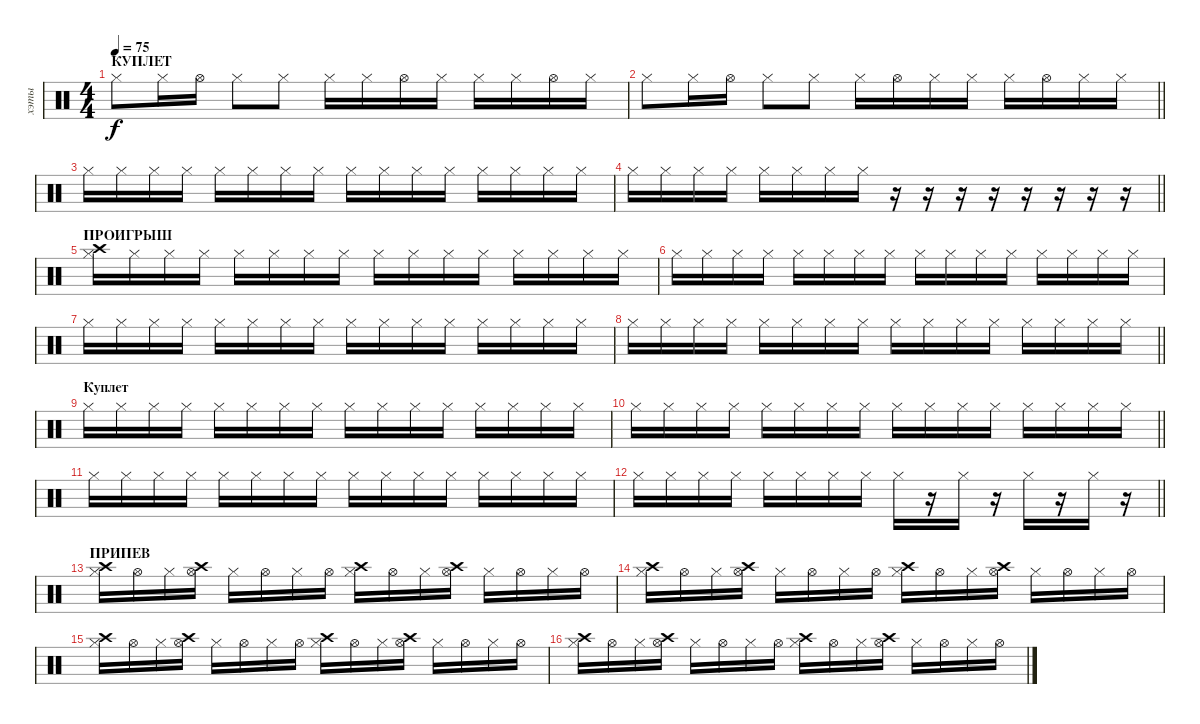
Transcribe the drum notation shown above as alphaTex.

\track ("хэты" "хэты") {instrument percussion}
\staff {score}
\articulation defaults
\ts (4 4)
\section ("" "КУПЛЕТ")
\tempo 75
\clef neutral
\ks c "Hi-Hat (closed)".8{dy f} "Hi-Hat (closed)".16 "Hi-Hat (open)".16 "Hi-Hat (closed)".8 "Hi-Hat (closed)".8 "Hi-Hat (closed)".16 "Hi-Hat (closed)".16 "Hi-Hat (open)".16 "Hi-Hat (closed)".16 "Hi-Hat (closed)".16 "Hi-Hat (closed)".16 "Hi-Hat (open)".16 "Hi-Hat (closed)".16
|
\barLineRight lightlight "Hi-Hat (closed)".8 "Hi-Hat (closed)".16 "Hi-Hat (open)".16 "Hi-Hat (closed)".8 "Hi-Hat (closed)".8 "Hi-Hat (closed)".16 "Hi-Hat (open)".16 "Hi-Hat (closed)".16 "Hi-Hat (closed)".16 "Hi-Hat (closed)".16 "Hi-Hat (open)".16 "Hi-Hat (closed)".16 "Hi-Hat (closed)".16
|
"Hi-Hat (closed)".16 "Hi-Hat (closed)".16 "Hi-Hat (closed)".16 "Hi-Hat (closed)".16 "Hi-Hat (closed)".16 "Hi-Hat (closed)".16 "Hi-Hat (closed)".16 "Hi-Hat (closed)".16 "Hi-Hat (closed)".16 "Hi-Hat (closed)".16 "Hi-Hat (closed)".16 "Hi-Hat (closed)".16 "Hi-Hat (closed)".16 "Hi-Hat (closed)".16 "Hi-Hat (closed)".16 "Hi-Hat (closed)".16 |
\barLineRight lightlight "Hi-Hat (closed)".16 "Hi-Hat (closed)".16 "Hi-Hat (closed)".16 "Hi-Hat (closed)".16 "Hi-Hat (closed)".16 "Hi-Hat (closed)".16 "Hi-Hat (closed)".16 "Hi-Hat (closed)".16
r.16 r.16 r.16 r.16 r.16 r.16 r.16 r.16 |
\section ("" "ПРОИГРЫШ")
("Crash high (hit)" "Hi-Hat (closed)").16 "Hi-Hat (closed)".16 "Hi-Hat (closed)".16 "Hi-Hat (closed)".16 "Hi-Hat (closed)".16 "Hi-Hat (closed)".16 "Hi-Hat (closed)".16 "Hi-Hat (closed)".16 "Hi-Hat (closed)".16 "Hi-Hat (closed)".16 "Hi-Hat (closed)".16 "Hi-Hat (closed)".16 "Hi-Hat (closed)".16 "Hi-Hat (closed)".16 "Hi-Hat (closed)".16 "Hi-Hat (closed)".16 |
"Hi-Hat (closed)".16 "Hi-Hat (closed)".16 "Hi-Hat (closed)".16 "Hi-Hat (closed)".16 "Hi-Hat (closed)".16 "Hi-Hat (closed)".16 "Hi-Hat (closed)".16 "Hi-Hat (closed)".16 "Hi-Hat (closed)".16 "Hi-Hat (closed)".16 "Hi-Hat (closed)".16 "Hi-Hat (closed)".16 "Hi-Hat (closed)".16 "Hi-Hat (closed)".16 "Hi-Hat (closed)".16 "Hi-Hat (closed)".16 |
"Hi-Hat (closed)".16 "Hi-Hat (closed)".16 "Hi-Hat (closed)".16 "Hi-Hat (closed)".16 "Hi-Hat (closed)".16 "Hi-Hat (closed)".16 "Hi-Hat (closed)".16 "Hi-Hat (closed)".16 "Hi-Hat (closed)".16 "Hi-Hat (closed)".16 "Hi-Hat (closed)".16 "Hi-Hat (closed)".16 "Hi-Hat (closed)".16 "Hi-Hat (closed)".16 "Hi-Hat (closed)".16 "Hi-Hat (closed)".16 |
\barLineRight lightlight "Hi-Hat (closed)".16 "Hi-Hat (closed)".16 "Hi-Hat (closed)".16 "Hi-Hat (closed)".16 "Hi-Hat (closed)".16 "Hi-Hat (closed)".16 "Hi-Hat (closed)".16 "Hi-Hat (closed)".16 "Hi-Hat (closed)".16 "Hi-Hat (closed)".16 "Hi-Hat (closed)".16 "Hi-Hat (closed)".16 "Hi-Hat (closed)".16 "Hi-Hat (closed)".16 "Hi-Hat (closed)".16 "Hi-Hat (closed)".16
|
\section ("" "Куплет")
"Hi-Hat (closed)".16 "Hi-Hat (closed)".16 "Hi-Hat (closed)".16 "Hi-Hat (closed)".16 "Hi-Hat (closed)".16 "Hi-Hat (closed)".16 "Hi-Hat (closed)".16 "Hi-Hat (closed)".16 "Hi-Hat (closed)".16 "Hi-Hat (closed)".16 "Hi-Hat (closed)".16 "Hi-Hat (closed)".16 "Hi-Hat (closed)".16 "Hi-Hat (closed)".16 "Hi-Hat (closed)".16 "Hi-Hat (closed)".16 |
\barLineRight lightlight "Hi-Hat (closed)".16 "Hi-Hat (closed)".16 "Hi-Hat (closed)".16 "Hi-Hat (closed)".16 "Hi-Hat (closed)".16 "Hi-Hat (closed)".16 "Hi-Hat (closed)".16 "Hi-Hat (closed)".16 "Hi-Hat (closed)".16 "Hi-Hat (closed)".16 "Hi-Hat (closed)".16 "Hi-Hat (closed)".16 "Hi-Hat (closed)".16 "Hi-Hat (closed)".16 "Hi-Hat (closed)".16 "Hi-Hat (closed)".16
|
"Hi-Hat (closed)".16 "Hi-Hat (closed)".16 "Hi-Hat (closed)".16 "Hi-Hat (closed)".16 "Hi-Hat (closed)".16 "Hi-Hat (closed)".16 "Hi-Hat (closed)".16 "Hi-Hat (closed)".16 "Hi-Hat (closed)".16 "Hi-Hat (closed)".16 "Hi-Hat (closed)".16 "Hi-Hat (closed)".16 "Hi-Hat (closed)".16 "Hi-Hat (closed)".16 "Hi-Hat (closed)".16 "Hi-Hat (closed)".16 |
\barLineRight lightlight "Hi-Hat (closed)".16 "Hi-Hat (closed)".16 "Hi-Hat (closed)".16 "Hi-Hat (closed)".16 "Hi-Hat (closed)".16 "Hi-Hat (closed)".16 "Hi-Hat (closed)".16 "Hi-Hat (closed)".16 "Hi-Hat (closed)".16
r.16 "Hi-Hat (closed)".16 r.16 "Hi-Hat (closed)".16 r.16 "Hi-Hat (closed)".16 r.16 |
\section ("" "ПРИПЕВ")
("Crash high (hit)" "Hi-Hat (closed)").16 "Hi-Hat (open)".16 "Hi-Hat (closed)".16 ("Hi-Hat (open)" "Crash high (hit)").16 "Hi-Hat (closed)".16 "Hi-Hat (open)".16 "Hi-Hat (closed)".16 "Hi-Hat (open)".16 ("Crash high (hit)" "Hi-Hat (closed)").16 "Hi-Hat (open)".16 "Hi-Hat (closed)".16 ("Hi-Hat (open)" "Crash high (hit)").16 "Hi-Hat (closed)".16 "Hi-Hat (open)".16 "Hi-Hat (closed)".16 "Hi-Hat (open)".16 |
("Crash high (hit)" "Hi-Hat (closed)").16 "Hi-Hat (open)".16 "Hi-Hat (closed)".16 ("Hi-Hat (open)" "Crash high (hit)").16 "Hi-Hat (closed)".16 "Hi-Hat (open)".16 "Hi-Hat (closed)".16 "Hi-Hat (open)".16 ("Crash high (hit)" "Hi-Hat (closed)").16 "Hi-Hat (open)".16 "Hi-Hat (closed)".16 ("Hi-Hat (open)" "Crash high (hit)").16 "Hi-Hat (closed)".16 "Hi-Hat (open)".16 "Hi-Hat (closed)".16 "Hi-Hat (open)".16 |
("Crash high (hit)" "Hi-Hat (closed)").16 "Hi-Hat (open)".16 "Hi-Hat (closed)".16 ("Hi-Hat (open)" "Crash high (hit)").16 "Hi-Hat (closed)".16 "Hi-Hat (open)".16 "Hi-Hat (closed)".16 "Hi-Hat (open)".16 ("Crash high (hit)" "Hi-Hat (closed)").16 "Hi-Hat (open)".16 "Hi-Hat (closed)".16 ("Hi-Hat (open)" "Crash high (hit)").16 "Hi-Hat (closed)".16 "Hi-Hat (open)".16 "Hi-Hat (closed)".16 "Hi-Hat (open)".16 |
("Crash high (hit)" "Hi-Hat (closed)").16 "Hi-Hat (open)".16 "Hi-Hat (closed)".16 ("Hi-Hat (open)" "Crash high (hit)").16 "Hi-Hat (closed)".16 "Hi-Hat (open)".16 "Hi-Hat (closed)".16 "Hi-Hat (open)".16 ("Crash high (hit)" "Hi-Hat (closed)").16 "Hi-Hat (open)".16 "Hi-Hat (closed)".16 ("Hi-Hat (open)" "Crash high (hit)").16 "Hi-Hat (closed)".16 "Hi-Hat (open)".16 "Hi-Hat (closed)".16 "Hi-Hat (open)".16
